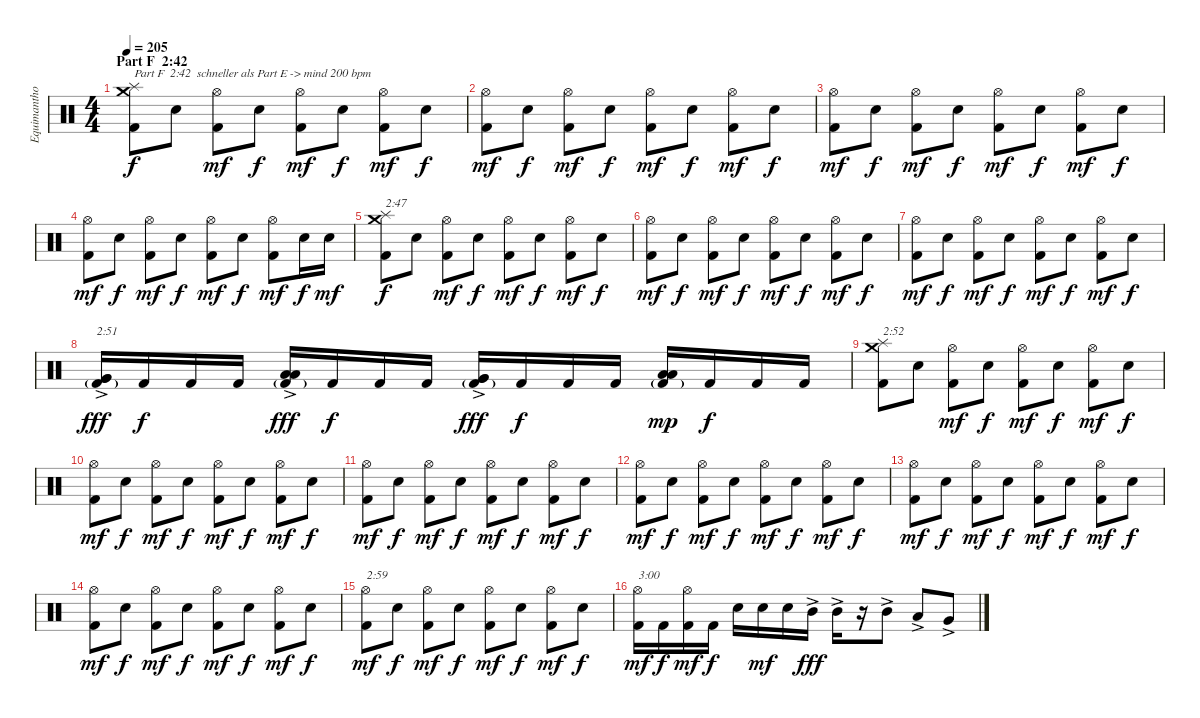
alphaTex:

\track ("Equimanthorn" "Equimantho") {instrument percussion}
\staff {score}
\articulation defaults
\ts (4 4)
\section ("" "Part F  2:42")
\tempo 205
\clef neutral
\ks c
("Kick (hit) 2" "Splash (hit)" "Crash medium (hit)").8{txt "Part F  2:42  schneller als Part E -> mind 200 bpm" dy f} "Electric Snare (hit)".8 ("Kick (hit) 2" "Hi-Hat (open)").8{dy mf} "Electric Snare (hit)".8{dy f} ("Kick (hit) 2" "Hi-Hat (open)").8{dy mf} "Electric Snare (hit)".8{dy f} ("Kick (hit) 2" "Hi-Hat (open)").8{dy mf} "Electric Snare (hit)".8{dy f} |
("Kick (hit) 2" "Hi-Hat (open)").8{dy mf} "Electric Snare (hit)".8{dy f} ("Kick (hit) 2" "Hi-Hat (open)").8{dy mf} "Electric Snare (hit)".8{dy f} ("Kick (hit) 2" "Hi-Hat (open)").8{dy mf} "Electric Snare (hit)".8{dy f} ("Kick (hit) 2" "Hi-Hat (open)").8{dy mf} "Electric Snare (hit)".8{dy f} |
("Kick (hit) 2" "Hi-Hat (open)").8{dy mf} "Electric Snare (hit)".8{dy f} ("Kick (hit) 2" "Hi-Hat (open)").8{dy mf} "Electric Snare (hit)".8{dy f} ("Kick (hit) 2" "Hi-Hat (open)").8{dy mf} "Electric Snare (hit)".8{dy f} ("Kick (hit) 2" "Hi-Hat (open)").8{dy mf} "Electric Snare (hit)".8{dy f} |
("Kick (hit) 2" "Hi-Hat (open)").8{dy mf} "Electric Snare (hit)".8{dy f} ("Kick (hit) 2" "Hi-Hat (open)").8{dy mf} "Electric Snare (hit)".8{dy f} ("Kick (hit) 2" "Hi-Hat (open)").8{dy mf} "Electric Snare (hit)".8{dy f} ("Kick (hit) 2" "Hi-Hat (open)").8{dy mf} "Electric Snare (hit)".16{dy f} "Electric Snare (hit)".16{dy mf} |
("Kick (hit) 2" "Splash (hit)" "Crash medium (hit)").8{txt "2:47" dy f} "Electric Snare (hit)".8 ("Kick (hit) 2" "Hi-Hat (open)").8{dy mf} "Electric Snare (hit)".8{dy f} ("Kick (hit) 2" "Hi-Hat (open)").8{dy mf} "Electric Snare (hit)".8{dy f} ("Kick (hit) 2" "Hi-Hat (open)").8{dy mf} "Electric Snare (hit)".8{dy f} |
("Kick (hit) 2" "Hi-Hat (open)").8{dy mf} "Electric Snare (hit)".8{dy f} ("Kick (hit) 2" "Hi-Hat (open)").8{dy mf} "Electric Snare (hit)".8{dy f} ("Kick (hit) 2" "Hi-Hat (open)").8{dy mf} "Electric Snare (hit)".8{dy f} ("Kick (hit) 2" "Hi-Hat (open)").8{dy mf} "Electric Snare (hit)".8{dy f} |
("Kick (hit) 2" "Hi-Hat (open)").8{dy mf} "Electric Snare (hit)".8{dy f} ("Kick (hit) 2" "Hi-Hat (open)").8{dy mf} "Electric Snare (hit)".8{dy f} ("Kick (hit) 2" "Hi-Hat (open)").8{dy mf} "Electric Snare (hit)".8{dy f} ("Kick (hit) 2" "Hi-Hat (open)").8{dy mf} "Electric Snare (hit)".8{dy f} |
("Kick (hit) 2"{g} "Very Low Tom (hit)"{ac} "Very Low Tom (hit)"{ac}).16{txt "2:51" dy fff} "Kick (hit) 2".16{dy f} "Kick (hit) 2".16 "Kick (hit) 2".16 ("Kick (hit) 2"{g} "Low Tom (hit)"{ac} "Low Tom (hit)"{ac}).16{dy fff} "Kick (hit) 2".16{dy f} "Kick (hit) 2".16 "Kick (hit) 2".16 ("Kick (hit) 2"{g} "Very Low Tom (hit)"{ac} "Very Low Tom (hit)"{ac}).16{dy fff} "Kick (hit) 2".16{dy f} "Kick (hit) 2".16 "Kick (hit) 2".16 ("Kick (hit) 2"{g} "Low Tom (hit)" "Low Tom (hit)").16{dy mp} "Kick (hit) 2".16{dy f} "Kick (hit) 2".16 "Kick (hit) 2".16 |
("Kick (hit) 2" "Splash (hit)" "Crash medium (hit)").8{txt "2:52"} "Electric Snare (hit)".8 ("Kick (hit) 2" "Hi-Hat (open)").8{dy mf} "Electric Snare (hit)".8{dy f} ("Kick (hit) 2" "Hi-Hat (open)").8{dy mf} "Electric Snare (hit)".8{dy f} ("Kick (hit) 2" "Hi-Hat (open)").8{dy mf} "Electric Snare (hit)".8{dy f} |
("Kick (hit) 2" "Hi-Hat (open)").8{dy mf} "Electric Snare (hit)".8{dy f} ("Kick (hit) 2" "Hi-Hat (open)").8{dy mf} "Electric Snare (hit)".8{dy f} ("Kick (hit) 2" "Hi-Hat (open)").8{dy mf} "Electric Snare (hit)".8{dy f} ("Kick (hit) 2" "Hi-Hat (open)").8{dy mf} "Electric Snare (hit)".8{dy f} |
("Kick (hit) 2" "Hi-Hat (open)").8{dy mf} "Electric Snare (hit)".8{dy f} ("Kick (hit) 2" "Hi-Hat (open)").8{dy mf} "Electric Snare (hit)".8{dy f} ("Kick (hit) 2" "Hi-Hat (open)").8{dy mf} "Electric Snare (hit)".8{dy f} ("Kick (hit) 2" "Hi-Hat (open)").8{dy mf} "Electric Snare (hit)".8{dy f} |
("Kick (hit) 2" "Hi-Hat (open)").8{dy mf} "Electric Snare (hit)".8{dy f} ("Kick (hit) 2" "Hi-Hat (open)").8{dy mf} "Electric Snare (hit)".8{dy f} ("Kick (hit) 2" "Hi-Hat (open)").8{dy mf} "Electric Snare (hit)".8{dy f} ("Kick (hit) 2" "Hi-Hat (open)").8{dy mf} "Electric Snare (hit)".8{dy f} |
("Kick (hit) 2" "Hi-Hat (open)").8{dy mf} "Electric Snare (hit)".8{dy f} ("Kick (hit) 2" "Hi-Hat (open)").8{dy mf} "Electric Snare (hit)".8{dy f} ("Kick (hit) 2" "Hi-Hat (open)").8{dy mf} "Electric Snare (hit)".8{dy f} ("Kick (hit) 2" "Hi-Hat (open)").8{dy mf} "Electric Snare (hit)".8{dy f} |
("Kick (hit) 2" "Hi-Hat (open)").8{dy mf} "Electric Snare (hit)".8{dy f} ("Kick (hit) 2" "Hi-Hat (open)").8{dy mf} "Electric Snare (hit)".8{dy f} ("Kick (hit) 2" "Hi-Hat (open)").8{dy mf} "Electric Snare (hit)".8{dy f} ("Kick (hit) 2" "Hi-Hat (open)").8{dy mf} "Electric Snare (hit)".8{dy f} |
("Kick (hit) 2" "Hi-Hat (open)").8{txt "2:59" dy mf} "Electric Snare (hit)".8{dy f} ("Kick (hit) 2" "Hi-Hat (open)").8{dy mf} "Electric Snare (hit)".8{dy f} ("Kick (hit) 2" "Hi-Hat (open)").8{dy mf} "Electric Snare (hit)".8{dy f} ("Kick (hit) 2" "Hi-Hat (open)").8{dy mf} "Electric Snare (hit)".8{dy f} |
("Kick (hit) 2" "Hi-Hat (open)").16{txt "3:00" dy mf} "Kick (hit) 2".16{dy f} ("Kick (hit) 2" "Hi-Hat (open)").16{dy mf} "Kick (hit) 2".16{dy f} "Electric Snare (hit)".16 "Electric Snare (hit)".16{dy mf} "Electric Snare (hit)".16 "Mid Tom (hit)"{ac}.16{dy fff} "Mid Tom (hit)"{ac}.16 r.16 "Mid Tom (hit)"{ac}.8 "Low Tom (hit)"{ac}.8 "Very Low Tom (hit)"{ac}.8
